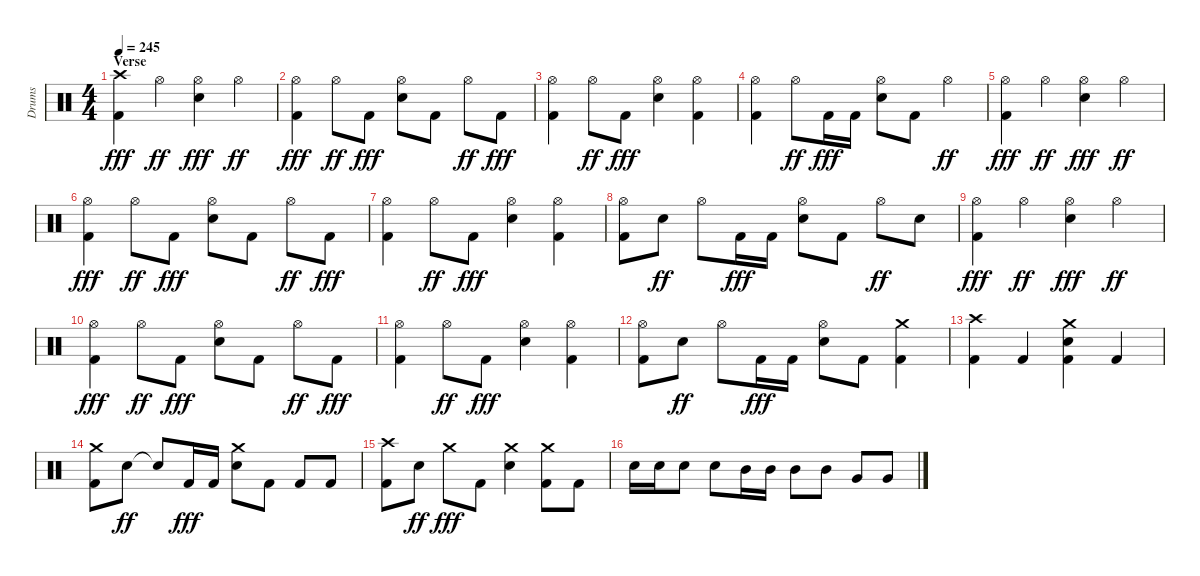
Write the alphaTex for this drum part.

\track ("Drums" "Drums") {instrument percussion}
\staff {score}
\articulation defaults
\ts (4 4)
\section ("" "Verse")
\tempo 245
\clef neutral
\ks aminor
("Kick (hit) 2" "Crash high (hit)").4{dy fff} "Hi-Hat (open)".4{dy ff} ("Snare (hit) 2" "Hi-Hat (open)").4{dy fff} "Hi-Hat (open)".4{dy ff} |
("Kick (hit) 2" "Hi-Hat (open)").4{dy fff} "Hi-Hat (open)".8{dy ff} "Kick (hit) 2".8{dy fff} ("Snare (hit) 2" "Hi-Hat (open)").8 "Kick (hit) 2".8 "Hi-Hat (open)".8{dy ff} "Kick (hit) 2".8{dy fff} |
("Kick (hit) 2" "Hi-Hat (open)").4 "Hi-Hat (open)".8{dy ff} "Kick (hit) 2".8{dy fff} ("Snare (hit) 2" "Hi-Hat (open)").4 ("Kick (hit) 2" "Hi-Hat (open)").4 |
("Kick (hit) 2" "Hi-Hat (open)").4 "Hi-Hat (open)".8{dy ff} "Kick (hit) 2".16{dy fff} "Kick (hit) 2".16 ("Snare (hit) 2" "Hi-Hat (open)").8 "Kick (hit) 2".8 "Hi-Hat (open)".4{dy ff} |
("Kick (hit) 2" "Hi-Hat (open)").4{dy fff} "Hi-Hat (open)".4{dy ff} ("Snare (hit) 2" "Hi-Hat (open)").4{dy fff} "Hi-Hat (open)".4{dy ff} |
("Kick (hit) 2" "Hi-Hat (open)").4{dy fff} "Hi-Hat (open)".8{dy ff} "Kick (hit) 2".8{dy fff} ("Snare (hit) 2" "Hi-Hat (open)").8 "Kick (hit) 2".8 "Hi-Hat (open)".8{dy ff} "Kick (hit) 2".8{dy fff} |
("Kick (hit) 2" "Hi-Hat (open)").4 "Hi-Hat (open)".8{dy ff} "Kick (hit) 2".8{dy fff} ("Snare (hit) 2" "Hi-Hat (open)").4 ("Kick (hit) 2" "Hi-Hat (open)").4 |
("Kick (hit) 2" "Hi-Hat (open)").8 "Snare (hit) 2".8{dy ff} "Hi-Hat (open)".8 "Kick (hit) 2".16{dy fff} "Kick (hit) 2".16 ("Snare (hit) 2" "Hi-Hat (open)").8 "Kick (hit) 2".8 "Hi-Hat (open)".8{dy ff} "Snare (hit) 2".8 |
("Kick (hit) 2" "Hi-Hat (open)").4{dy fff} "Hi-Hat (open)".4{dy ff} ("Snare (hit) 2" "Hi-Hat (open)").4{dy fff} "Hi-Hat (open)".4{dy ff} |
("Kick (hit) 2" "Hi-Hat (open)").4{dy fff} "Hi-Hat (open)".8{dy ff} "Kick (hit) 2".8{dy fff} ("Snare (hit) 2" "Hi-Hat (open)").8 "Kick (hit) 2".8 "Hi-Hat (open)".8{dy ff} "Kick (hit) 2".8{dy fff} |
("Kick (hit) 2" "Hi-Hat (open)").4 "Hi-Hat (open)".8{dy ff} "Kick (hit) 2".8{dy fff} ("Snare (hit) 2" "Hi-Hat (open)").4 ("Kick (hit) 2" "Hi-Hat (open)").4 |
("Kick (hit) 2" "Hi-Hat (open)").8 "Snare (hit) 2".8{dy ff} "Hi-Hat (open)".8 "Kick (hit) 2".16{dy fff} "Kick (hit) 2".16 ("Snare (hit) 2" "Hi-Hat (open)").8 "Kick (hit) 2".8 ("Kick (hit) 2" "Crash medium (hit)").4 |
("Kick (hit) 2" "Crash high (hit)").4 "Kick (hit) 2".4 ("Kick (hit) 2" "Snare (hit) 2" "Crash medium (hit)").4 "Kick (hit) 2".4 |
("Kick (hit) 2" "Crash medium (hit)").8 "Snare (hit) 2".8{dy ff} "Snare (hit) 2"{t}.8 "Kick (hit) 2".16{dy fff} "Kick (hit) 2".16 ("Snare (hit) 2" "Crash medium (hit)").8 "Kick (hit) 2".8 "Kick (hit) 2".8 "Kick (hit) 2".8 |
("Kick (hit) 2" "Crash high (hit)").8 "Snare (hit) 2".8{dy ff} "Crash medium (hit)".8{dy fff} "Kick (hit) 2".8 ("Snare (hit) 2" "Crash medium (hit)").4 ("Kick (hit) 2" "Crash medium (hit)").8 "Kick (hit) 2".8 |
"Snare (hit) 2".16 "Snare (hit) 2".16 "Snare (hit) 2".8 "Snare (hit) 2".8 "Mid Tom (hit)".16 "Mid Tom (hit)".16 "Mid Tom (hit)".8 "Mid Tom (hit)".8 "Very Low Tom (hit)".8 "Very Low Tom (hit)".8
